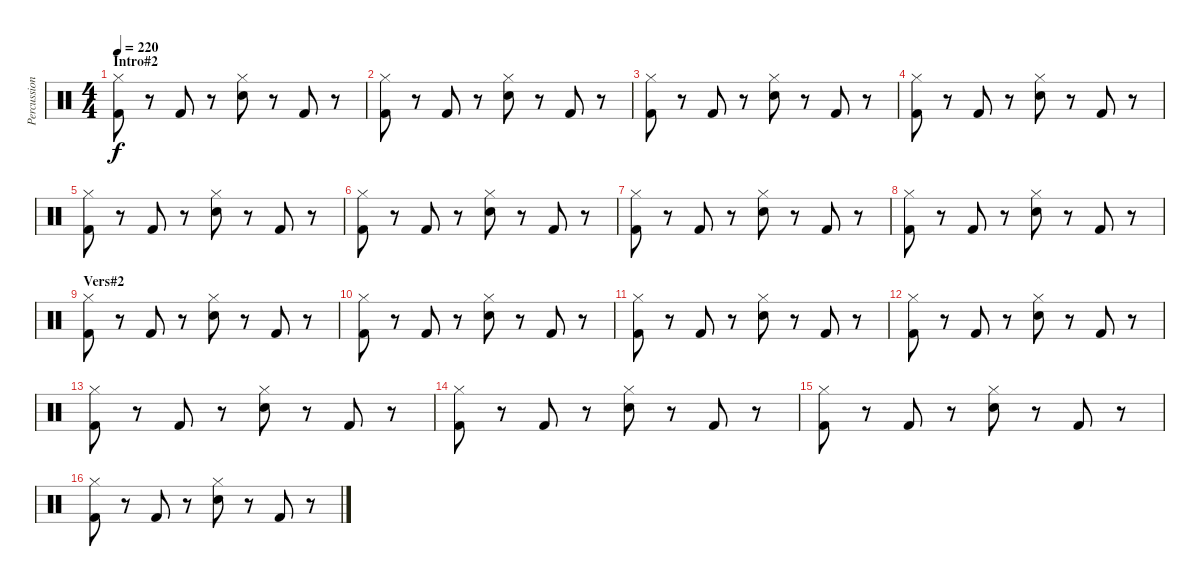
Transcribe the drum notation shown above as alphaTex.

\track ("Percussion" "Percussion") {instrument percussion}
\staff {score}
\articulation defaults
\ts (4 4)
\section ("" "Intro#2")
\tempo 220
\clef neutral
\ks c
("Kick (hit) 2" "Hi-Hat (closed)").8{dy f} r.8 "Kick (hit) 2".8 r.8 ("Snare (hit) 2" "Hi-Hat (closed)").8 r.8 "Kick (hit) 2".8 r.8 |
("Kick (hit) 2" "Hi-Hat (closed)").8 r.8 "Kick (hit) 2".8 r.8 ("Snare (hit) 2" "Hi-Hat (closed)").8 r.8 "Kick (hit) 2".8 r.8 |
("Kick (hit) 2" "Hi-Hat (closed)").8 r.8 "Kick (hit) 2".8 r.8 ("Snare (hit) 2" "Hi-Hat (closed)").8 r.8 "Kick (hit) 2".8 r.8 |
("Kick (hit) 2" "Hi-Hat (closed)").8 r.8 "Kick (hit) 2".8 r.8 ("Snare (hit) 2" "Hi-Hat (closed)").8 r.8 "Kick (hit) 2".8 r.8 |
("Kick (hit) 2" "Hi-Hat (closed)").8 r.8 "Kick (hit) 2".8 r.8 ("Snare (hit) 2" "Hi-Hat (closed)").8 r.8 "Kick (hit) 2".8 r.8 |
("Kick (hit) 2" "Hi-Hat (closed)").8 r.8 "Kick (hit) 2".8 r.8 ("Snare (hit) 2" "Hi-Hat (closed)").8 r.8 "Kick (hit) 2".8 r.8 |
("Kick (hit) 2" "Hi-Hat (closed)").8 r.8 "Kick (hit) 2".8 r.8 ("Snare (hit) 2" "Hi-Hat (closed)").8 r.8 "Kick (hit) 2".8 r.8 |
("Kick (hit) 2" "Hi-Hat (closed)").8 r.8 "Kick (hit) 2".8 r.8 ("Snare (hit) 2" "Hi-Hat (closed)").8 r.8 "Kick (hit) 2".8 r.8 |
\section ("" "Vers#2")
("Kick (hit) 2" "Hi-Hat (closed)").8 r.8 "Kick (hit) 2".8 r.8 ("Snare (hit) 2" "Hi-Hat (closed)").8 r.8 "Kick (hit) 2".8 r.8 |
("Kick (hit) 2" "Hi-Hat (closed)").8 r.8 "Kick (hit) 2".8 r.8 ("Snare (hit) 2" "Hi-Hat (closed)").8 r.8 "Kick (hit) 2".8 r.8 |
("Kick (hit) 2" "Hi-Hat (closed)").8 r.8 "Kick (hit) 2".8 r.8 ("Snare (hit) 2" "Hi-Hat (closed)").8 r.8 "Kick (hit) 2".8 r.8 |
("Kick (hit) 2" "Hi-Hat (closed)").8 r.8 "Kick (hit) 2".8 r.8 ("Snare (hit) 2" "Hi-Hat (closed)").8 r.8 "Kick (hit) 2".8 r.8 |
("Kick (hit) 2" "Hi-Hat (closed)").8 r.8 "Kick (hit) 2".8 r.8 ("Snare (hit) 2" "Hi-Hat (closed)").8 r.8 "Kick (hit) 2".8 r.8 |
("Kick (hit) 2" "Hi-Hat (closed)").8 r.8 "Kick (hit) 2".8 r.8 ("Snare (hit) 2" "Hi-Hat (closed)").8 r.8 "Kick (hit) 2".8 r.8 |
("Kick (hit) 2" "Hi-Hat (closed)").8 r.8 "Kick (hit) 2".8 r.8 ("Snare (hit) 2" "Hi-Hat (closed)").8 r.8 "Kick (hit) 2".8 r.8 |
("Kick (hit) 2" "Hi-Hat (closed)").8 r.8 "Kick (hit) 2".8 r.8 ("Snare (hit) 2" "Hi-Hat (closed)").8 r.8 "Kick (hit) 2".8 r.8
